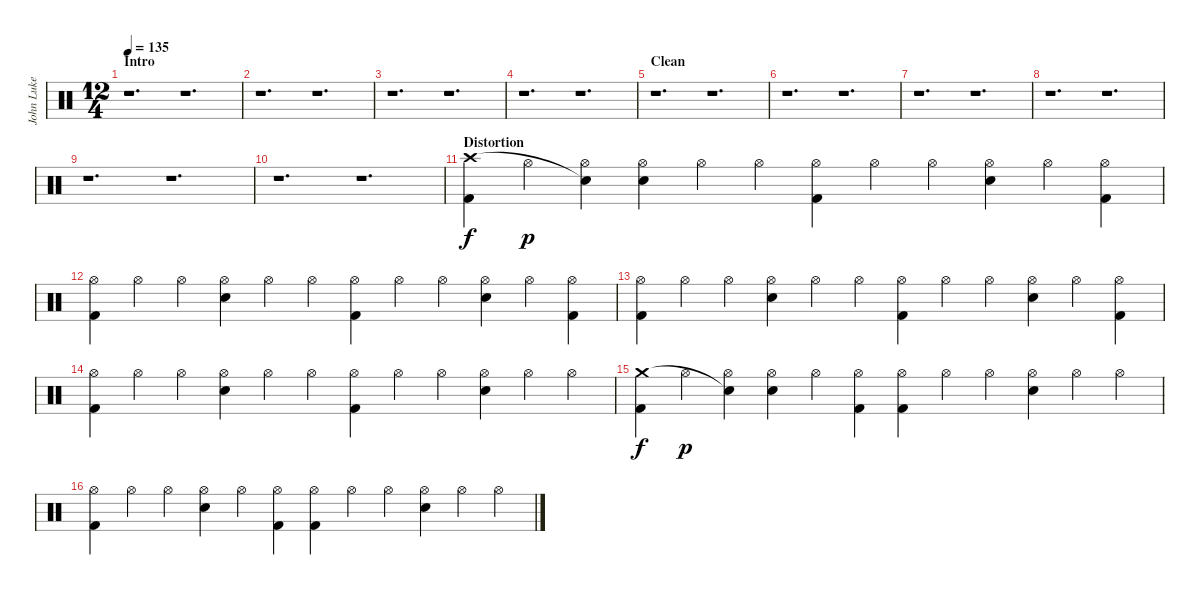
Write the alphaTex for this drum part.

\track ("John Luke Hebert" "John Luke ") {instrument percussion}
\staff {score}
\articulation defaults
\ts (12 4)
\section ("" "Intro")
\tempo 135
\clef neutral
\ks c
r.1{d dy f} r.1{d} |
r.1{d} r.1{d} |
r.1{d} r.1{d} |
r.1{d} r.1{d} |
\section ("" "Clean")
r.1{d} r.1{d} |
r.1{d} r.1{d} |
r.1{d} r.1{d} |
r.1{d} r.1{d} |
r.1{d} r.1{d} |
r.1{d} r.1{d} |
\section ("" "Distortion")
("Kick (hit) 2" "Crash high (hit)").4 "Hi-Hat (open)".4{dy p} ("Hi-Hat (open)" "Snare (hit)"{t}).4 ("Electric Snare (hit)" "Hi-Hat (open)").4 "Hi-Hat (open)".4 "Hi-Hat (open)".4 ("Kick (hit) 2" "Hi-Hat (open)").4 "Hi-Hat (open)".4 "Hi-Hat (open)".4 ("Electric Snare (hit)" "Hi-Hat (open)").4 "Hi-Hat (open)".4 ("Kick (hit) 2" "Hi-Hat (open)").4 |
("Kick (hit) 2" "Hi-Hat (open)").4 "Hi-Hat (open)".4 "Hi-Hat (open)".4 ("Electric Snare (hit)" "Hi-Hat (open)").4 "Hi-Hat (open)".4 "Hi-Hat (open)".4 ("Kick (hit) 2" "Hi-Hat (open)").4 "Hi-Hat (open)".4 "Hi-Hat (open)".4 ("Electric Snare (hit)" "Hi-Hat (open)").4 "Hi-Hat (open)".4 ("Kick (hit) 2" "Hi-Hat (open)").4 |
("Kick (hit) 2" "Hi-Hat (open)").4 "Hi-Hat (open)".4 "Hi-Hat (open)".4 ("Electric Snare (hit)" "Hi-Hat (open)").4 "Hi-Hat (open)".4 "Hi-Hat (open)".4 ("Kick (hit) 2" "Hi-Hat (open)").4 "Hi-Hat (open)".4 "Hi-Hat (open)".4 ("Electric Snare (hit)" "Hi-Hat (open)").4 "Hi-Hat (open)".4 ("Kick (hit) 2" "Hi-Hat (open)").4 |
("Kick (hit) 2" "Hi-Hat (open)").4 "Hi-Hat (open)".4 "Hi-Hat (open)".4 ("Electric Snare (hit)" "Hi-Hat (open)").4 "Hi-Hat (open)".4 "Hi-Hat (open)".4 ("Kick (hit) 2" "Hi-Hat (open)").4 "Hi-Hat (open)".4 "Hi-Hat (open)".4 ("Electric Snare (hit)" "Hi-Hat (open)").4 "Hi-Hat (open)".4 "Hi-Hat (open)".4 |
("Kick (hit) 2" "Crash medium (hit)").4{dy f} "Hi-Hat (open)".4{dy p} ("Hi-Hat (open)" "Snare (hit)"{t}).4 ("Electric Snare (hit)" "Hi-Hat (open)").4 "Hi-Hat (open)".4 ("Kick (hit) 2" "Hi-Hat (open)").4 ("Kick (hit) 2" "Hi-Hat (open)").4 "Hi-Hat (open)".4 "Hi-Hat (open)".4 ("Electric Snare (hit)" "Hi-Hat (open)").4 "Hi-Hat (open)".4 "Hi-Hat (open)".4 |
("Kick (hit) 2" "Hi-Hat (open)").4 "Hi-Hat (open)".4 "Hi-Hat (open)".4 ("Electric Snare (hit)" "Hi-Hat (open)").4 "Hi-Hat (open)".4 ("Kick (hit) 2" "Hi-Hat (open)").4 ("Kick (hit) 2" "Hi-Hat (open)").4 "Hi-Hat (open)".4 "Hi-Hat (open)".4 ("Electric Snare (hit)" "Hi-Hat (open)").4 "Hi-Hat (open)".4 "Hi-Hat (open)".4
